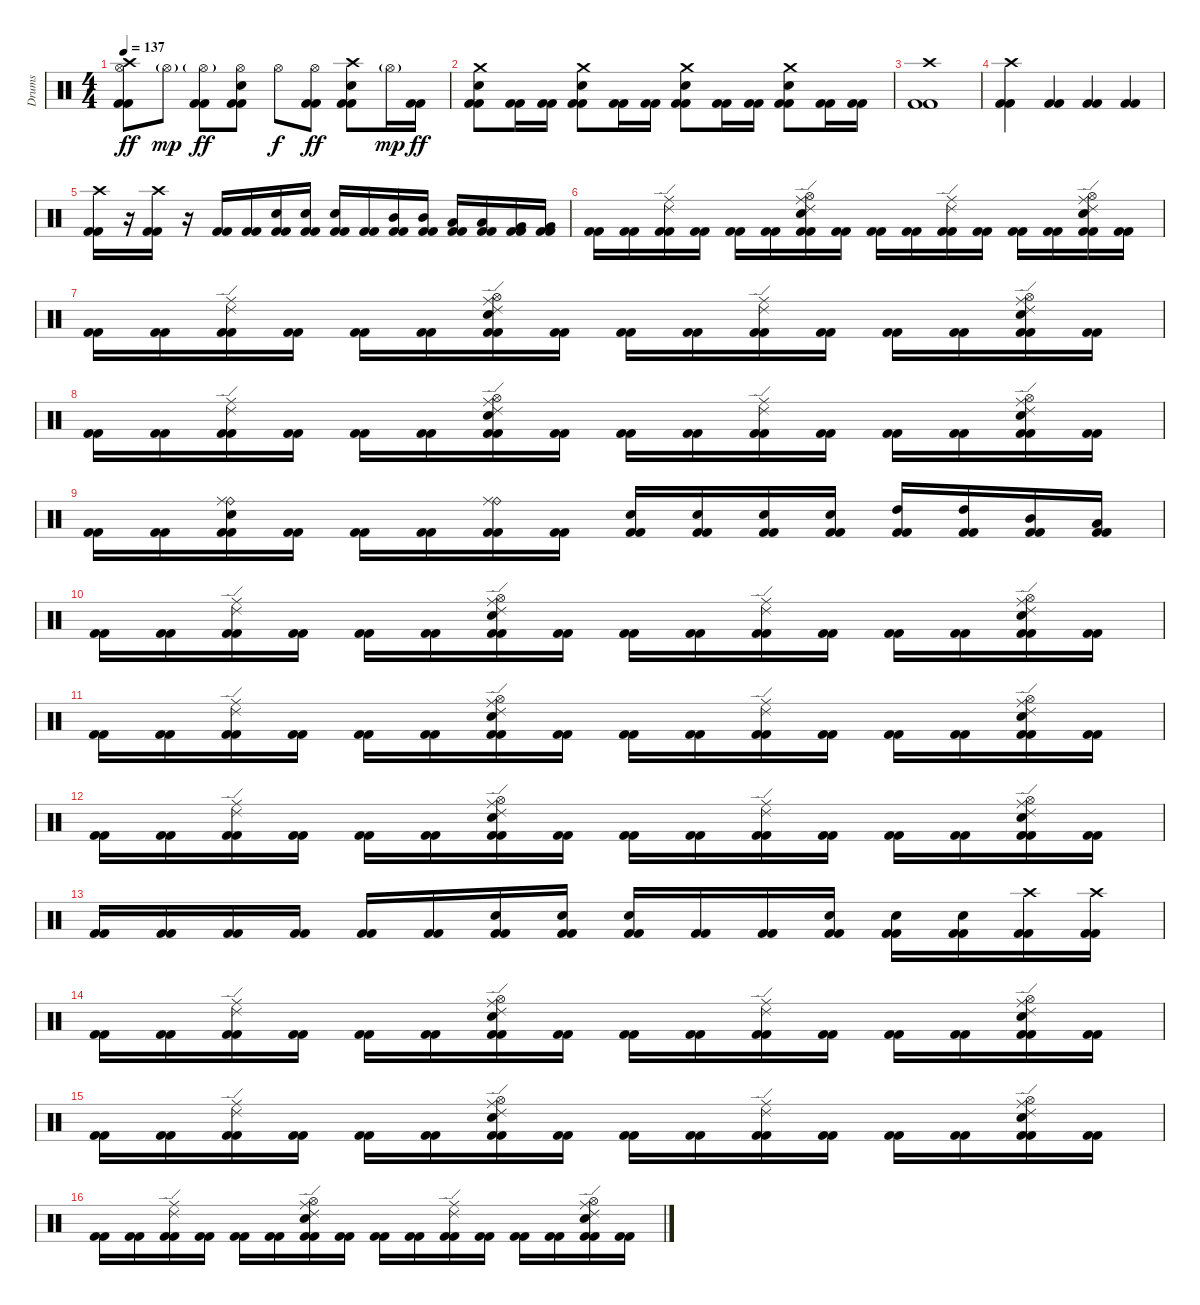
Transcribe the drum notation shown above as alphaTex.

\track ("Drums" "Drums") {instrument percussion}
\staff {score}
\articulation defaults
\ts (4 4)
\tempo 137
\clef neutral
\ks c
("Hi-Hat (open)" "Crash high (hit)" "Kick (hit) 2" "Kick (hit) 2").8{dy ff} "Hi-Hat (open)"{g}.8{dy mp} ("Hi-Hat (open)"{g} "Kick (hit) 2" "Kick (hit) 2").8{dy ff} ("Hi-Hat (open)" "Electric Snare (hit)" "Kick (hit) 2" "Kick (hit) 2").8 "Hi-Hat (open)".8{dy f} ("Hi-Hat (open)" "Kick (hit) 2" "Kick (hit) 2").8{dy ff} ("Crash high (hit)" "Electric Snare (hit)" "Kick (hit) 2" "Kick (hit) 2").8 "Hi-Hat (open)"{g}.16{dy mp} ("Kick (hit) 2" "Kick (hit) 2").16{dy ff} |
("Crash medium (hit)" "Electric Snare (hit)" "Kick (hit) 2" "Kick (hit) 2").8 ("Kick (hit) 2" "Kick (hit) 2").16 ("Kick (hit) 2" "Kick (hit) 2").16 ("Crash medium (hit)" "Electric Snare (hit)" "Kick (hit) 2" "Kick (hit) 2").8 ("Kick (hit) 2" "Kick (hit) 2").16 ("Kick (hit) 2" "Kick (hit) 2").16 ("Crash medium (hit)" "Electric Snare (hit)" "Kick (hit) 2" "Kick (hit) 2").8 ("Kick (hit) 2" "Kick (hit) 2").16 ("Kick (hit) 2" "Kick (hit) 2").16 ("Crash medium (hit)" "Electric Snare (hit)" "Kick (hit) 2" "Kick (hit) 2").8 ("Kick (hit) 2" "Kick (hit) 2").16 ("Kick (hit) 2" "Kick (hit) 2").16 |
("Crash high (hit)" "Kick (hit) 2" "Kick (hit) 2").1 |
("Crash high (hit)" "Kick (hit) 2" "Kick (hit) 2").4 ("Kick (hit) 2" "Kick (hit) 2").4 ("Kick (hit) 2" "Kick (hit) 2").4 ("Kick (hit) 2" "Kick (hit) 2").4 |
("Crash high (hit)" "Kick (hit) 2" "Kick (hit) 2").16 r.16 ("Crash high (hit)" "Kick (hit) 2" "Kick (hit) 2").16 r.16 ("Kick (hit) 2" "Kick (hit) 2").16 ("Kick (hit) 2" "Kick (hit) 2").16 ("Electric Snare (hit)" "Kick (hit) 2" "Kick (hit) 2").16 ("Electric Snare (hit)" "Kick (hit) 2" "Kick (hit) 2").16 ("Electric Snare (hit)" "Kick (hit) 2" "Kick (hit) 2").16 ("Kick (hit) 2" "Kick (hit) 2").16 ("Mid Tom (hit)" "Kick (hit) 2" "Kick (hit) 2").16 ("Mid Tom (hit)" "Kick (hit) 2" "Kick (hit) 2").16 ("Low Tom (hit)" "Kick (hit) 2" "Kick (hit) 2").16 ("Low Tom (hit)" "Kick (hit) 2" "Kick (hit) 2").16 ("Very Low Tom (hit)" "Kick (hit) 2" "Kick (hit) 2").16 ("Very Low Tom (hit)" "Kick (hit) 2" "Kick (hit) 2").16 |
("Kick (hit) 2" "Kick (hit) 2").16 ("Kick (hit) 2" "Kick (hit) 2").16 ("Ride (edge) 2" "Ride (middle)" "Kick (hit) 2" "Kick (hit) 2").16 ("Kick (hit) 2" "Kick (hit) 2").16 ("Kick (hit) 2" "Kick (hit) 2").16 ("Kick (hit) 2" "Kick (hit) 2").16 ("Ride (edge) 2" "Hi-Hat (open)" "Ride (middle)" "Electric Snare (hit)" "Kick (hit) 2" "Kick (hit) 2").16 ("Kick (hit) 2" "Kick (hit) 2").16 ("Kick (hit) 2" "Kick (hit) 2").16 ("Kick (hit) 2" "Kick (hit) 2").16 ("Ride (edge) 2" "Ride (middle)" "Kick (hit) 2" "Kick (hit) 2").16 ("Kick (hit) 2" "Kick (hit) 2").16 ("Kick (hit) 2" "Kick (hit) 2").16 ("Kick (hit) 2" "Kick (hit) 2").16 ("Ride (edge) 2" "Hi-Hat (open)" "Ride (middle)" "Electric Snare (hit)" "Kick (hit) 2" "Kick (hit) 2").16 ("Kick (hit) 2" "Kick (hit) 2").16 |
("Kick (hit) 2" "Kick (hit) 2").16 ("Kick (hit) 2" "Kick (hit) 2").16 ("Ride (edge) 2" "Ride (middle)" "Kick (hit) 2" "Kick (hit) 2").16 ("Kick (hit) 2" "Kick (hit) 2").16 ("Kick (hit) 2" "Kick (hit) 2").16 ("Kick (hit) 2" "Kick (hit) 2").16 ("Ride (edge) 2" "Hi-Hat (open)" "Ride (middle)" "Electric Snare (hit)" "Kick (hit) 2" "Kick (hit) 2").16 ("Kick (hit) 2" "Kick (hit) 2").16 ("Kick (hit) 2" "Kick (hit) 2").16 ("Kick (hit) 2" "Kick (hit) 2").16 ("Ride (edge) 2" "Ride (middle)" "Kick (hit) 2" "Kick (hit) 2").16 ("Kick (hit) 2" "Kick (hit) 2").16 ("Kick (hit) 2" "Kick (hit) 2").16 ("Kick (hit) 2" "Kick (hit) 2").16 ("Ride (edge) 2" "Hi-Hat (open)" "Ride (middle)" "Electric Snare (hit)" "Kick (hit) 2" "Kick (hit) 2").16 ("Kick (hit) 2" "Kick (hit) 2").16 |
("Kick (hit) 2" "Kick (hit) 2").16 ("Kick (hit) 2" "Kick (hit) 2").16 ("Ride (edge) 2" "Ride (middle)" "Kick (hit) 2" "Kick (hit) 2").16 ("Kick (hit) 2" "Kick (hit) 2").16 ("Kick (hit) 2" "Kick (hit) 2").16 ("Kick (hit) 2" "Kick (hit) 2").16 ("Ride (edge) 2" "Hi-Hat (open)" "Ride (middle)" "Electric Snare (hit)" "Kick (hit) 2" "Kick (hit) 2").16 ("Kick (hit) 2" "Kick (hit) 2").16 ("Kick (hit) 2" "Kick (hit) 2").16 ("Kick (hit) 2" "Kick (hit) 2").16 ("Ride (edge) 2" "Ride (middle)" "Kick (hit) 2" "Kick (hit) 2").16 ("Kick (hit) 2" "Kick (hit) 2").16 ("Kick (hit) 2" "Kick (hit) 2").16 ("Kick (hit) 2" "Kick (hit) 2").16 ("Ride (edge) 2" "Hi-Hat (open)" "Ride (middle)" "Electric Snare (hit)" "Kick (hit) 2" "Kick (hit) 2").16 ("Kick (hit) 2" "Kick (hit) 2").16 |
("Kick (hit) 2" "Kick (hit) 2").16 ("Kick (hit) 2" "Kick (hit) 2").16 ("Ride (bell)" "Electric Snare (hit)" "Ride (middle)" "Kick (hit) 2" "Kick (hit) 2").16 ("Kick (hit) 2" "Kick (hit) 2").16 ("Kick (hit) 2" "Kick (hit) 2").16 ("Kick (hit) 2" "Kick (hit) 2").16 ("Ride (bell)" "Ride (middle)" "Kick (hit) 2" "Kick (hit) 2").16 ("Kick (hit) 2" "Kick (hit) 2").16 ("Electric Snare (hit)" "Kick (hit) 2" "Kick (hit) 2").16 ("Electric Snare (hit)" "Kick (hit) 2" "Kick (hit) 2").16 ("Electric Snare (hit)" "Kick (hit) 2" "Kick (hit) 2").16 ("Electric Snare (hit)" "Kick (hit) 2" "Kick (hit) 2").16 ("High Tom (hit)" "Kick (hit) 2" "Kick (hit) 2").16 ("High Tom (hit)" "Kick (hit) 2" "Kick (hit) 2").16 ("Mid Tom (hit)" "Kick (hit) 2" "Kick (hit) 2").16 ("Low Tom (hit)" "Kick (hit) 2" "Kick (hit) 2").16 |
("Kick (hit) 2" "Kick (hit) 2").16 ("Kick (hit) 2" "Kick (hit) 2").16 ("Ride (edge) 2" "Ride (middle)" "Kick (hit) 2" "Kick (hit) 2").16 ("Kick (hit) 2" "Kick (hit) 2").16 ("Kick (hit) 2" "Kick (hit) 2").16 ("Kick (hit) 2" "Kick (hit) 2").16 ("Ride (edge) 2" "Hi-Hat (open)" "Ride (middle)" "Electric Snare (hit)" "Kick (hit) 2" "Kick (hit) 2").16 ("Kick (hit) 2" "Kick (hit) 2").16 ("Kick (hit) 2" "Kick (hit) 2").16 ("Kick (hit) 2" "Kick (hit) 2").16 ("Ride (edge) 2" "Ride (middle)" "Kick (hit) 2" "Kick (hit) 2").16 ("Kick (hit) 2" "Kick (hit) 2").16 ("Kick (hit) 2" "Kick (hit) 2").16 ("Kick (hit) 2" "Kick (hit) 2").16 ("Ride (edge) 2" "Hi-Hat (open)" "Ride (middle)" "Electric Snare (hit)" "Kick (hit) 2" "Kick (hit) 2").16 ("Kick (hit) 2" "Kick (hit) 2").16 |
("Kick (hit) 2" "Kick (hit) 2").16 ("Kick (hit) 2" "Kick (hit) 2").16 ("Ride (edge) 2" "Ride (middle)" "Kick (hit) 2" "Kick (hit) 2").16 ("Kick (hit) 2" "Kick (hit) 2").16 ("Kick (hit) 2" "Kick (hit) 2").16 ("Kick (hit) 2" "Kick (hit) 2").16 ("Ride (edge) 2" "Hi-Hat (open)" "Ride (middle)" "Electric Snare (hit)" "Kick (hit) 2" "Kick (hit) 2").16 ("Kick (hit) 2" "Kick (hit) 2").16 ("Kick (hit) 2" "Kick (hit) 2").16 ("Kick (hit) 2" "Kick (hit) 2").16 ("Ride (edge) 2" "Ride (middle)" "Kick (hit) 2" "Kick (hit) 2").16 ("Kick (hit) 2" "Kick (hit) 2").16 ("Kick (hit) 2" "Kick (hit) 2").16 ("Kick (hit) 2" "Kick (hit) 2").16 ("Ride (edge) 2" "Hi-Hat (open)" "Ride (middle)" "Electric Snare (hit)" "Kick (hit) 2" "Kick (hit) 2").16 ("Kick (hit) 2" "Kick (hit) 2").16 |
("Kick (hit) 2" "Kick (hit) 2").16 ("Kick (hit) 2" "Kick (hit) 2").16 ("Ride (edge) 2" "Ride (middle)" "Kick (hit) 2" "Kick (hit) 2").16 ("Kick (hit) 2" "Kick (hit) 2").16 ("Kick (hit) 2" "Kick (hit) 2").16 ("Kick (hit) 2" "Kick (hit) 2").16 ("Ride (edge) 2" "Hi-Hat (open)" "Ride (middle)" "Electric Snare (hit)" "Kick (hit) 2" "Kick (hit) 2").16 ("Kick (hit) 2" "Kick (hit) 2").16 ("Kick (hit) 2" "Kick (hit) 2").16 ("Kick (hit) 2" "Kick (hit) 2").16 ("Ride (edge) 2" "Ride (middle)" "Kick (hit) 2" "Kick (hit) 2").16 ("Kick (hit) 2" "Kick (hit) 2").16 ("Kick (hit) 2" "Kick (hit) 2").16 ("Kick (hit) 2" "Kick (hit) 2").16 ("Ride (edge) 2" "Hi-Hat (open)" "Ride (middle)" "Electric Snare (hit)" "Kick (hit) 2" "Kick (hit) 2").16 ("Kick (hit) 2" "Kick (hit) 2").16 |
("Kick (hit) 2" "Kick (hit) 2").16 ("Kick (hit) 2" "Kick (hit) 2").16 ("Kick (hit) 2" "Kick (hit) 2").16 ("Kick (hit) 2" "Kick (hit) 2").16 ("Kick (hit) 2" "Kick (hit) 2").16 ("Kick (hit) 2" "Kick (hit) 2").16 ("Electric Snare (hit)" "Kick (hit) 2" "Kick (hit) 2").16 ("Electric Snare (hit)" "Kick (hit) 2" "Kick (hit) 2").16 ("Electric Snare (hit)" "Kick (hit) 2" "Kick (hit) 2").16 ("Kick (hit) 2" "Kick (hit) 2").16 ("Kick (hit) 2" "Kick (hit) 2").16 ("Electric Snare (hit)" "Kick (hit) 2" "Kick (hit) 2").16 ("Electric Snare (hit)" "Kick (hit) 2" "Kick (hit) 2").16 ("Electric Snare (hit)" "Kick (hit) 2" "Kick (hit) 2").16 ("Crash high (hit)" "Kick (hit) 2" "Kick (hit) 2").16 ("Crash high (hit)" "Kick (hit) 2" "Kick (hit) 2").16 |
("Kick (hit) 2" "Kick (hit) 2").16 ("Kick (hit) 2" "Kick (hit) 2").16 ("Ride (edge) 2" "Ride (middle)" "Kick (hit) 2" "Kick (hit) 2").16 ("Kick (hit) 2" "Kick (hit) 2").16 ("Kick (hit) 2" "Kick (hit) 2").16 ("Kick (hit) 2" "Kick (hit) 2").16 ("Ride (edge) 2" "Hi-Hat (open)" "Ride (middle)" "Electric Snare (hit)" "Kick (hit) 2" "Kick (hit) 2").16 ("Kick (hit) 2" "Kick (hit) 2").16 ("Kick (hit) 2" "Kick (hit) 2").16 ("Kick (hit) 2" "Kick (hit) 2").16 ("Ride (edge) 2" "Ride (middle)" "Kick (hit) 2" "Kick (hit) 2").16 ("Kick (hit) 2" "Kick (hit) 2").16 ("Kick (hit) 2" "Kick (hit) 2").16 ("Kick (hit) 2" "Kick (hit) 2").16 ("Ride (edge) 2" "Hi-Hat (open)" "Ride (middle)" "Electric Snare (hit)" "Kick (hit) 2" "Kick (hit) 2").16 ("Kick (hit) 2" "Kick (hit) 2").16 |
("Kick (hit) 2" "Kick (hit) 2").16 ("Kick (hit) 2" "Kick (hit) 2").16 ("Ride (edge) 2" "Ride (middle)" "Kick (hit) 2" "Kick (hit) 2").16 ("Kick (hit) 2" "Kick (hit) 2").16 ("Kick (hit) 2" "Kick (hit) 2").16 ("Kick (hit) 2" "Kick (hit) 2").16 ("Ride (edge) 2" "Hi-Hat (open)" "Ride (middle)" "Electric Snare (hit)" "Kick (hit) 2" "Kick (hit) 2").16 ("Kick (hit) 2" "Kick (hit) 2").16 ("Kick (hit) 2" "Kick (hit) 2").16 ("Kick (hit) 2" "Kick (hit) 2").16 ("Ride (edge) 2" "Ride (middle)" "Kick (hit) 2" "Kick (hit) 2").16 ("Kick (hit) 2" "Kick (hit) 2").16 ("Kick (hit) 2" "Kick (hit) 2").16 ("Kick (hit) 2" "Kick (hit) 2").16 ("Ride (edge) 2" "Hi-Hat (open)" "Ride (middle)" "Electric Snare (hit)" "Kick (hit) 2" "Kick (hit) 2").16 ("Kick (hit) 2" "Kick (hit) 2").16 |
("Kick (hit) 2" "Kick (hit) 2").16 ("Kick (hit) 2" "Kick (hit) 2").16 ("Ride (edge) 2" "Ride (middle)" "Kick (hit) 2" "Kick (hit) 2").16 ("Kick (hit) 2" "Kick (hit) 2").16 ("Kick (hit) 2" "Kick (hit) 2").16 ("Kick (hit) 2" "Kick (hit) 2").16 ("Ride (edge) 2" "Hi-Hat (open)" "Ride (middle)" "Electric Snare (hit)" "Kick (hit) 2" "Kick (hit) 2").16 ("Kick (hit) 2" "Kick (hit) 2").16 ("Kick (hit) 2" "Kick (hit) 2").16 ("Kick (hit) 2" "Kick (hit) 2").16 ("Ride (edge) 2" "Ride (middle)" "Kick (hit) 2" "Kick (hit) 2").16 ("Kick (hit) 2" "Kick (hit) 2").16 ("Kick (hit) 2" "Kick (hit) 2").16 ("Kick (hit) 2" "Kick (hit) 2").16 ("Ride (edge) 2" "Hi-Hat (open)" "Ride (middle)" "Electric Snare (hit)" "Kick (hit) 2" "Kick (hit) 2").16 ("Kick (hit) 2" "Kick (hit) 2").16
